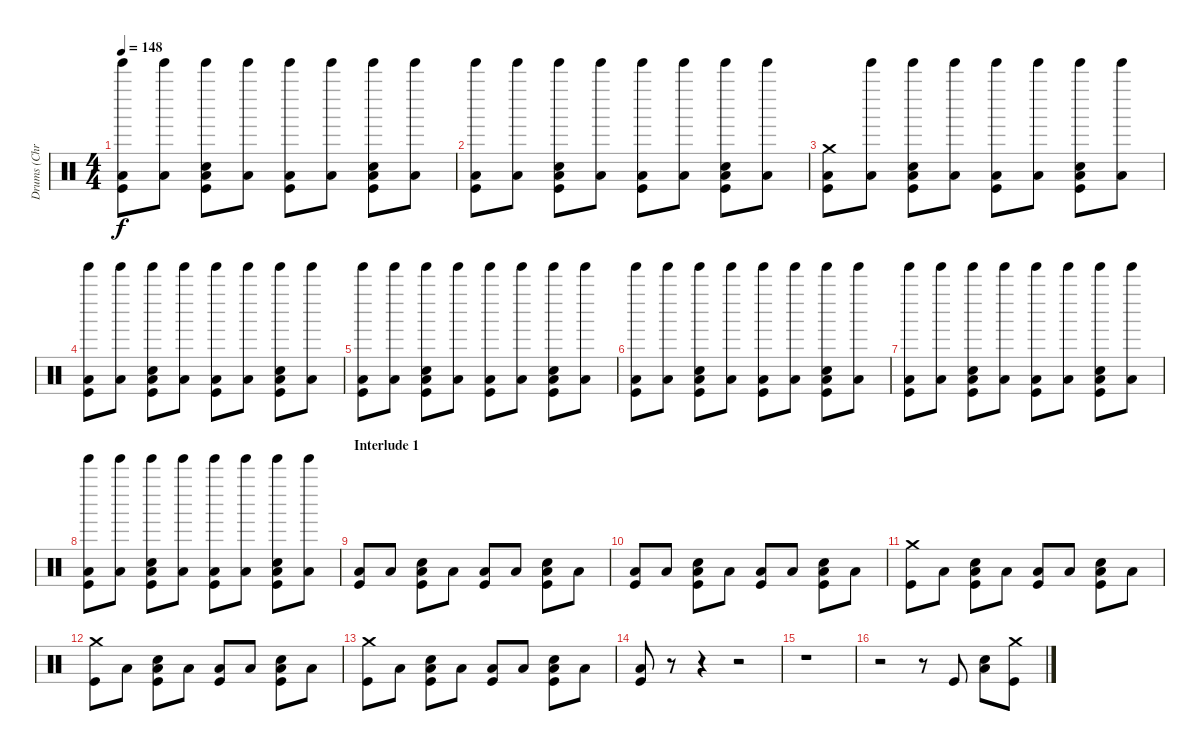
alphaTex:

\track ("Drums (Chris Dangerous)" "Drums (Chr") {instrument percussion}
\staff {score}
\articulation defaults
\ts (4 4)
\tempo 148
\clef neutral
\ks c
("Low Tom (hit)" "Kick (hit)" "Tinkle Bell (hit)").8{dy f} ("Low Tom (hit)" "Tinkle Bell (hit)").8 ("Low Tom (hit)" "Kick (hit)" "Snare (hit) 2" "Tinkle Bell (hit)").8 ("Low Tom (hit)" "Tinkle Bell (hit)").8 ("Low Tom (hit)" "Kick (hit)" "Tinkle Bell (hit)").8 ("Low Tom (hit)" "Tinkle Bell (hit)").8 ("Low Tom (hit)" "Kick (hit)" "Snare (hit) 2" "Tinkle Bell (hit)").8 ("Low Tom (hit)" "Tinkle Bell (hit)").8 |
("Low Tom (hit)" "Kick (hit)" "Tinkle Bell (hit)").8 ("Low Tom (hit)" "Tinkle Bell (hit)").8 ("Low Tom (hit)" "Kick (hit)" "Snare (hit) 2" "Tinkle Bell (hit)").8 ("Low Tom (hit)" "Tinkle Bell (hit)").8 ("Low Tom (hit)" "Kick (hit)" "Tinkle Bell (hit)").8 ("Low Tom (hit)" "Tinkle Bell (hit)").8 ("Low Tom (hit)" "Kick (hit)" "Snare (hit) 2" "Tinkle Bell (hit)").8 ("Low Tom (hit)" "Tinkle Bell (hit)").8 |
("Low Tom (hit)" "Kick (hit)" "Crash medium (hit)").8 ("Low Tom (hit)" "Tinkle Bell (hit)").8 ("Low Tom (hit)" "Kick (hit)" "Snare (hit) 2" "Tinkle Bell (hit)").8 ("Low Tom (hit)" "Tinkle Bell (hit)").8 ("Low Tom (hit)" "Kick (hit)" "Tinkle Bell (hit)").8 ("Low Tom (hit)" "Tinkle Bell (hit)").8 ("Low Tom (hit)" "Kick (hit)" "Snare (hit) 2" "Tinkle Bell (hit)").8 ("Low Tom (hit)" "Tinkle Bell (hit)").8 |
("Low Tom (hit)" "Kick (hit)" "Tinkle Bell (hit)").8 ("Low Tom (hit)" "Tinkle Bell (hit)").8 ("Low Tom (hit)" "Kick (hit)" "Snare (hit) 2" "Tinkle Bell (hit)").8 ("Low Tom (hit)" "Tinkle Bell (hit)").8 ("Low Tom (hit)" "Kick (hit)" "Tinkle Bell (hit)").8 ("Low Tom (hit)" "Tinkle Bell (hit)").8 ("Low Tom (hit)" "Kick (hit)" "Snare (hit) 2" "Tinkle Bell (hit)").8 ("Low Tom (hit)" "Tinkle Bell (hit)").8 |
("Low Tom (hit)" "Kick (hit)" "Tinkle Bell (hit)").8 ("Low Tom (hit)" "Tinkle Bell (hit)").8 ("Low Tom (hit)" "Kick (hit)" "Snare (hit) 2" "Tinkle Bell (hit)").8 ("Low Tom (hit)" "Tinkle Bell (hit)").8 ("Low Tom (hit)" "Kick (hit)" "Tinkle Bell (hit)").8 ("Low Tom (hit)" "Tinkle Bell (hit)").8 ("Low Tom (hit)" "Kick (hit)" "Snare (hit) 2" "Tinkle Bell (hit)").8 ("Low Tom (hit)" "Tinkle Bell (hit)").8 |
("Low Tom (hit)" "Kick (hit)" "Tinkle Bell (hit)").8 ("Low Tom (hit)" "Tinkle Bell (hit)").8 ("Low Tom (hit)" "Kick (hit)" "Snare (hit) 2" "Tinkle Bell (hit)").8 ("Low Tom (hit)" "Tinkle Bell (hit)").8 ("Low Tom (hit)" "Kick (hit)" "Tinkle Bell (hit)").8 ("Low Tom (hit)" "Tinkle Bell (hit)").8 ("Low Tom (hit)" "Kick (hit)" "Snare (hit) 2" "Tinkle Bell (hit)").8 ("Low Tom (hit)" "Tinkle Bell (hit)").8 |
("Low Tom (hit)" "Kick (hit)" "Tinkle Bell (hit)").8 ("Low Tom (hit)" "Tinkle Bell (hit)").8 ("Low Tom (hit)" "Kick (hit)" "Snare (hit) 2" "Tinkle Bell (hit)").8 ("Low Tom (hit)" "Tinkle Bell (hit)").8 ("Low Tom (hit)" "Kick (hit)" "Tinkle Bell (hit)").8 ("Low Tom (hit)" "Tinkle Bell (hit)").8 ("Low Tom (hit)" "Kick (hit)" "Snare (hit) 2" "Tinkle Bell (hit)").8 ("Low Tom (hit)" "Tinkle Bell (hit)").8 |
("Low Tom (hit)" "Kick (hit)" "Tinkle Bell (hit)").8 ("Low Tom (hit)" "Tinkle Bell (hit)").8 ("Low Tom (hit)" "Kick (hit)" "Snare (hit) 2" "Tinkle Bell (hit)").8 ("Low Tom (hit)" "Tinkle Bell (hit)").8 ("Low Tom (hit)" "Kick (hit)" "Tinkle Bell (hit)").8 ("Low Tom (hit)" "Tinkle Bell (hit)").8 ("Low Tom (hit)" "Kick (hit)" "Snare (hit) 2" "Tinkle Bell (hit)").8 ("Low Tom (hit)" "Tinkle Bell (hit)").8 |
\section ("" "Interlude 1")
("Low Tom (hit)" "Kick (hit)").8 "Low Tom (hit)".8 ("Low Tom (hit)" "Kick (hit)" "Snare (hit) 2").8 "Low Tom (hit)".8 ("Low Tom (hit)" "Kick (hit)").8 "Low Tom (hit)".8 ("Low Tom (hit)" "Kick (hit)" "Snare (hit) 2").8 "Low Tom (hit)".8 |
("Low Tom (hit)" "Kick (hit)").8 "Low Tom (hit)".8 ("Low Tom (hit)" "Kick (hit)" "Snare (hit) 2").8 "Low Tom (hit)".8 ("Low Tom (hit)" "Kick (hit)").8 "Low Tom (hit)".8 ("Low Tom (hit)" "Kick (hit)" "Snare (hit) 2").8 "Low Tom (hit)".8 |
("Kick (hit)" "Crash medium (hit)").8 "Low Tom (hit)".8 ("Low Tom (hit)" "Kick (hit)" "Snare (hit) 2").8 "Low Tom (hit)".8 ("Low Tom (hit)" "Kick (hit)").8 "Low Tom (hit)".8 ("Low Tom (hit)" "Kick (hit)" "Snare (hit) 2").8 "Low Tom (hit)".8 |
("Kick (hit)" "Crash medium (hit)").8 "Low Tom (hit)".8 ("Low Tom (hit)" "Kick (hit)" "Snare (hit) 2").8 "Low Tom (hit)".8 ("Low Tom (hit)" "Kick (hit)").8 "Low Tom (hit)".8 ("Low Tom (hit)" "Kick (hit)" "Snare (hit) 2").8 "Low Tom (hit)".8 |
("Kick (hit)" "Crash medium (hit)").8 "Low Tom (hit)".8 ("Low Tom (hit)" "Kick (hit)" "Snare (hit) 2").8 "Low Tom (hit)".8 ("Low Tom (hit)" "Kick (hit)").8 "Low Tom (hit)".8 ("Low Tom (hit)" "Kick (hit)" "Snare (hit) 2").8 "Low Tom (hit)".8 |
("Low Tom (hit)" "Kick (hit)").8 r.8 r.4 r.2 |
r.1 |
r.2 r.8 "Kick (hit)".8 ("Low Tom (hit)" "Snare (hit) 2").8 ("Kick (hit)" "Crash medium (hit)").8
